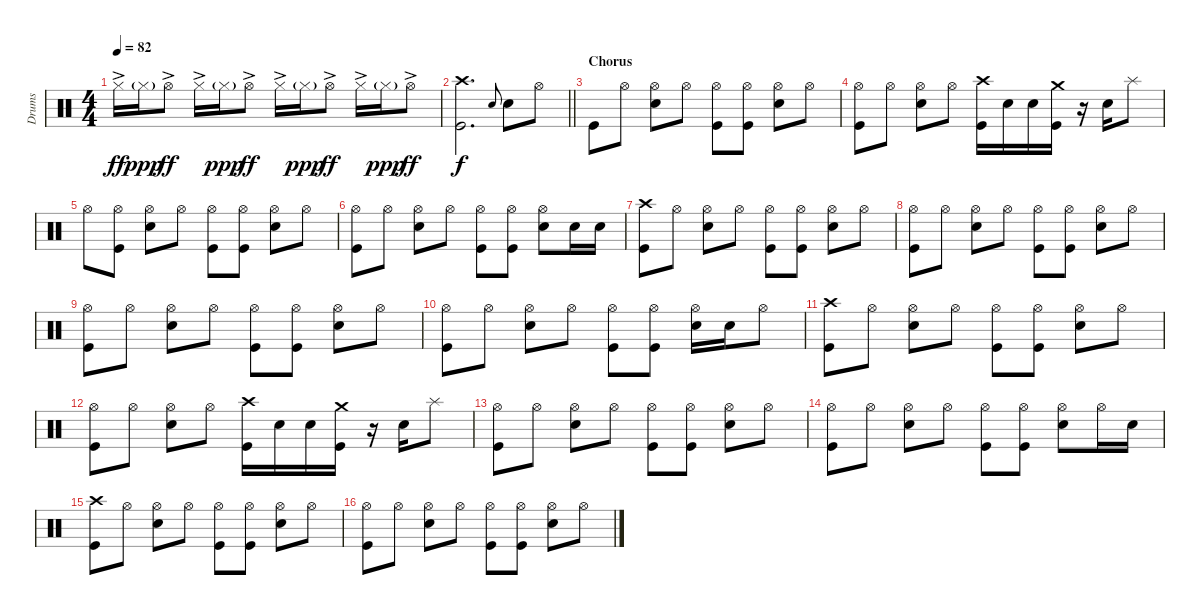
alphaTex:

\track ("Drums" "Drums") {instrument percussion}
\staff {score}
\articulation defaults
\ts (4 4)
\tempo 82
\clef neutral
\ks c "Hi-Hat (closed)"{ac}.16{dy ff} "Hi-Hat (closed)"{g}.16{dy ppp} "Hi-Hat (open)"{ac}.8{dy ff} "Hi-Hat (closed)"{ac}.16 "Hi-Hat (closed)"{g}.16{dy ppp} "Hi-Hat (open)"{ac}.8{dy ff} "Hi-Hat (closed)"{ac}.16 "Hi-Hat (closed)"{g}.16{dy ppp} "Hi-Hat (open)"{ac}.8{dy ff} "Hi-Hat (closed)"{ac}.16 "Hi-Hat (closed)"{g}.16{dy ppp} "Hi-Hat (open)"{ac}.8{dy ff}
|
\barLineRight lightlight
("Crash high (hit)" "Kick (hit)").2{d dy f} "Snare (hit) 2"{h}.8{gr onbeat} "Snare (hit) 2".8 "Hi-Hat (open)".8 |
\section ("" "Chorus")
"Kick (hit)".8 "Hi-Hat (open)".8 ("Hi-Hat (open)" "Snare (hit) 2").8 "Hi-Hat (open)".8 ("Hi-Hat (open)" "Kick (hit)").8 ("Hi-Hat (open)" "Kick (hit)").8 ("Hi-Hat (open)" "Snare (hit) 2").8 "Hi-Hat (open)".8 |
("Hi-Hat (open)" "Kick (hit)").8 "Hi-Hat (open)".8 ("Hi-Hat (open)" "Snare (hit) 2").8 "Hi-Hat (open)".8 ("Crash high (hit)" "Kick (hit)").16 "Snare (hit) 2".16 "Snare (hit) 2".16 ("Crash medium (hit)" "Kick (hit)").16 r.16 "Snare (hit) 2".16 "Splash (hit)".8 |
"Hi-Hat (open)".8 ("Hi-Hat (open)" "Kick (hit)").8 ("Hi-Hat (open)" "Snare (hit) 2").8 "Hi-Hat (open)".8 ("Hi-Hat (open)" "Kick (hit)").8 ("Hi-Hat (open)" "Kick (hit)").8 ("Hi-Hat (open)" "Snare (hit) 2").8 "Hi-Hat (open)".8 |
("Hi-Hat (open)" "Kick (hit)").8 "Hi-Hat (open)".8 ("Hi-Hat (open)" "Snare (hit) 2").8 "Hi-Hat (open)".8 ("Hi-Hat (open)" "Kick (hit)").8 ("Hi-Hat (open)" "Kick (hit)").8 ("Hi-Hat (open)" "Snare (hit) 2").8 "Snare (hit) 2".16 "Snare (hit) 2".16 |
("Crash high (hit)" "Kick (hit)").8 "Hi-Hat (open)".8 ("Hi-Hat (open)" "Snare (hit) 2").8 "Hi-Hat (open)".8 ("Hi-Hat (open)" "Kick (hit)").8 ("Hi-Hat (open)" "Kick (hit)").8 ("Hi-Hat (open)" "Snare (hit) 2").8 "Hi-Hat (open)".8 |
("Hi-Hat (open)" "Kick (hit)").8 "Hi-Hat (open)".8 ("Hi-Hat (open)" "Snare (hit) 2").8 "Hi-Hat (open)".8 ("Hi-Hat (open)" "Kick (hit)").8 ("Hi-Hat (open)" "Kick (hit)").8 ("Hi-Hat (open)" "Snare (hit) 2").8 "Hi-Hat (open)".8 |
("Hi-Hat (open)" "Kick (hit)").8 "Hi-Hat (open)".8 ("Hi-Hat (open)" "Snare (hit) 2").8 "Hi-Hat (open)".8 ("Hi-Hat (open)" "Kick (hit)").8 ("Hi-Hat (open)" "Kick (hit)").8 ("Hi-Hat (open)" "Snare (hit) 2").8 "Hi-Hat (open)".8 |
("Hi-Hat (open)" "Kick (hit)").8 "Hi-Hat (open)".8 ("Hi-Hat (open)" "Snare (hit) 2").8 "Hi-Hat (open)".8 ("Hi-Hat (open)" "Kick (hit)").8 ("Hi-Hat (open)" "Kick (hit)").8 ("Hi-Hat (open)" "Snare (hit) 2").16 "Snare (hit) 2".16 "Hi-Hat (open)".8 |
("Crash high (hit)" "Kick (hit)").8 "Hi-Hat (open)".8 ("Hi-Hat (open)" "Snare (hit) 2").8 "Hi-Hat (open)".8 ("Hi-Hat (open)" "Kick (hit)").8 ("Hi-Hat (open)" "Kick (hit)").8 ("Hi-Hat (open)" "Snare (hit) 2").8 "Hi-Hat (open)".8 |
("Hi-Hat (open)" "Kick (hit)").8 "Hi-Hat (open)".8 ("Hi-Hat (open)" "Snare (hit) 2").8 "Hi-Hat (open)".8 ("Crash high (hit)" "Kick (hit)").16 "Snare (hit) 2".16 "Snare (hit) 2".16 ("Crash medium (hit)" "Kick (hit)").16 r.16 "Snare (hit) 2".16 "Splash (hit)".8 |
("Hi-Hat (open)" "Kick (hit)").8 "Hi-Hat (open)".8 ("Hi-Hat (open)" "Snare (hit) 2").8 "Hi-Hat (open)".8 ("Hi-Hat (open)" "Kick (hit)").8 ("Hi-Hat (open)" "Kick (hit)").8 ("Hi-Hat (open)" "Snare (hit) 2").8 "Hi-Hat (open)".8 |
("Hi-Hat (open)" "Kick (hit)").8 "Hi-Hat (open)".8 ("Hi-Hat (open)" "Snare (hit) 2").8 "Hi-Hat (open)".8 ("Hi-Hat (open)" "Kick (hit)").8 ("Hi-Hat (open)" "Kick (hit)").8 ("Hi-Hat (open)" "Snare (hit) 2").8 "Hi-Hat (open)".16 "Snare (hit) 2".16 |
("Crash high (hit)" "Kick (hit)").8 "Hi-Hat (open)".8 ("Hi-Hat (open)" "Snare (hit) 2").8 "Hi-Hat (open)".8 ("Hi-Hat (open)" "Kick (hit)").8 ("Hi-Hat (open)" "Kick (hit)").8 ("Hi-Hat (open)" "Snare (hit) 2").8 "Hi-Hat (open)".8 |
("Hi-Hat (open)" "Kick (hit)").8 "Hi-Hat (open)".8 ("Hi-Hat (open)" "Snare (hit) 2").8 "Hi-Hat (open)".8 ("Hi-Hat (open)" "Kick (hit)").8 ("Hi-Hat (open)" "Kick (hit)").8 ("Hi-Hat (open)" "Snare (hit) 2").8 "Hi-Hat (open)".8
